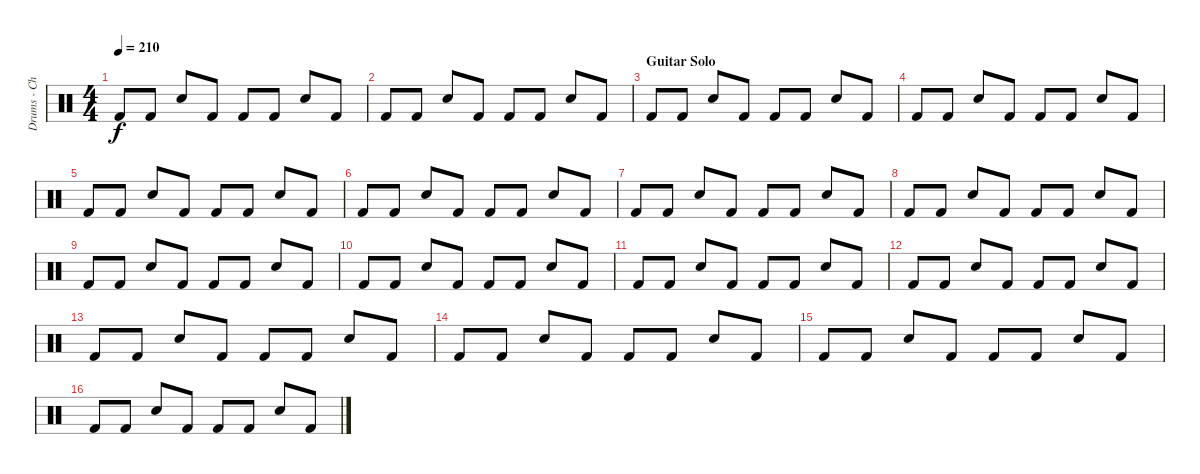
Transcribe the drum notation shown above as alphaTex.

\track ("Drums - Chad Smith" "Drums - Ch") {instrument percussion}
\staff {score}
\articulation defaults
\ts (4 4)
\tempo 210
\clef neutral
\ks c "Kick (hit) 2".8{dy f} "Kick (hit) 2".8 "Electric Snare (hit)".8 "Kick (hit) 2".8 "Kick (hit) 2".8 "Kick (hit) 2".8 "Electric Snare (hit)".8 "Kick (hit) 2".8
|
"Kick (hit) 2".8 "Kick (hit) 2".8 "Electric Snare (hit)".8 "Kick (hit) 2".8 "Kick (hit) 2".8 "Kick (hit) 2".8 "Electric Snare (hit)".8 "Kick (hit) 2".8 |
\section ("" "Guitar Solo")
"Kick (hit) 2".8 "Kick (hit) 2".8 "Electric Snare (hit)".8 "Kick (hit) 2".8 "Kick (hit) 2".8 "Kick (hit) 2".8 "Electric Snare (hit)".8 "Kick (hit) 2".8 |
"Kick (hit) 2".8 "Kick (hit) 2".8 "Electric Snare (hit)".8 "Kick (hit) 2".8 "Kick (hit) 2".8 "Kick (hit) 2".8 "Electric Snare (hit)".8 "Kick (hit) 2".8 |
"Kick (hit) 2".8 "Kick (hit) 2".8 "Electric Snare (hit)".8 "Kick (hit) 2".8 "Kick (hit) 2".8 "Kick (hit) 2".8 "Electric Snare (hit)".8 "Kick (hit) 2".8 |
"Kick (hit) 2".8 "Kick (hit) 2".8 "Electric Snare (hit)".8 "Kick (hit) 2".8 "Kick (hit) 2".8 "Kick (hit) 2".8 "Electric Snare (hit)".8 "Kick (hit) 2".8 |
"Kick (hit) 2".8 "Kick (hit) 2".8 "Electric Snare (hit)".8 "Kick (hit) 2".8 "Kick (hit) 2".8 "Kick (hit) 2".8 "Electric Snare (hit)".8 "Kick (hit) 2".8 |
"Kick (hit) 2".8 "Kick (hit) 2".8 "Electric Snare (hit)".8 "Kick (hit) 2".8 "Kick (hit) 2".8 "Kick (hit) 2".8 "Electric Snare (hit)".8 "Kick (hit) 2".8 |
"Kick (hit) 2".8 "Kick (hit) 2".8 "Electric Snare (hit)".8 "Kick (hit) 2".8 "Kick (hit) 2".8 "Kick (hit) 2".8 "Electric Snare (hit)".8 "Kick (hit) 2".8 |
"Kick (hit) 2".8 "Kick (hit) 2".8 "Electric Snare (hit)".8 "Kick (hit) 2".8 "Kick (hit) 2".8 "Kick (hit) 2".8 "Electric Snare (hit)".8 "Kick (hit) 2".8 |
"Kick (hit) 2".8 "Kick (hit) 2".8 "Electric Snare (hit)".8 "Kick (hit) 2".8 "Kick (hit) 2".8 "Kick (hit) 2".8 "Electric Snare (hit)".8 "Kick (hit) 2".8 |
"Kick (hit) 2".8 "Kick (hit) 2".8 "Electric Snare (hit)".8 "Kick (hit) 2".8 "Kick (hit) 2".8 "Kick (hit) 2".8 "Electric Snare (hit)".8 "Kick (hit) 2".8 |
"Kick (hit) 2".8 "Kick (hit) 2".8 "Electric Snare (hit)".8 "Kick (hit) 2".8 "Kick (hit) 2".8 "Kick (hit) 2".8 "Electric Snare (hit)".8 "Kick (hit) 2".8 |
"Kick (hit) 2".8 "Kick (hit) 2".8 "Electric Snare (hit)".8 "Kick (hit) 2".8 "Kick (hit) 2".8 "Kick (hit) 2".8 "Electric Snare (hit)".8 "Kick (hit) 2".8 |
"Kick (hit) 2".8 "Kick (hit) 2".8 "Electric Snare (hit)".8 "Kick (hit) 2".8 "Kick (hit) 2".8 "Kick (hit) 2".8 "Electric Snare (hit)".8 "Kick (hit) 2".8 |
"Kick (hit) 2".8 "Kick (hit) 2".8 "Electric Snare (hit)".8 "Kick (hit) 2".8 "Kick (hit) 2".8 "Kick (hit) 2".8 "Electric Snare (hit)".8 "Kick (hit) 2".8
